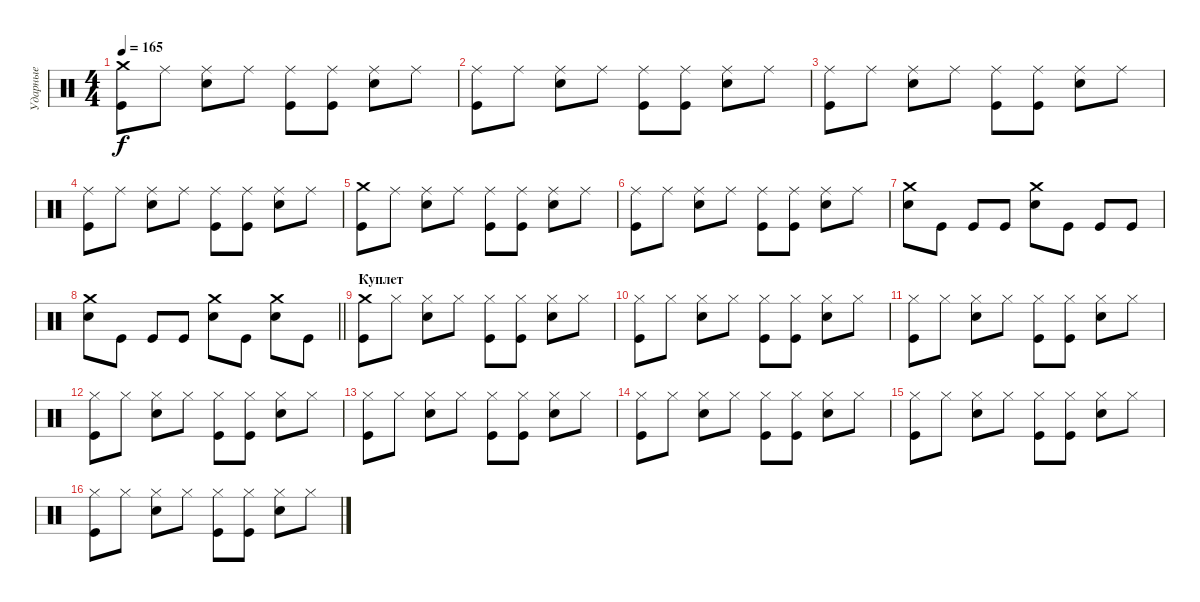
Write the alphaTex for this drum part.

\track ("Ударные" "Ударные") {instrument percussion}
\staff {score}
\articulation defaults
\ts (4 4)
\tempo 165
\clef neutral
\ks c
("Crash medium (hit)" "Kick (hit)").8{dy f} "Ride (middle)".8 ("Ride (middle)" "Electric Snare (hit)").8 "Ride (middle)".8 ("Ride (middle)" "Kick (hit)").8 ("Ride (middle)" "Kick (hit)").8 ("Ride (middle)" "Electric Snare (hit)").8 "Ride (middle)".8 |
("Ride (middle)" "Kick (hit)").8 "Ride (middle)".8 ("Ride (middle)" "Electric Snare (hit)").8 "Ride (middle)".8 ("Ride (middle)" "Kick (hit)").8 ("Ride (middle)" "Kick (hit)").8 ("Ride (middle)" "Electric Snare (hit)").8 "Ride (middle)".8 |
("Ride (middle)" "Kick (hit)").8 "Ride (middle)".8 ("Ride (middle)" "Electric Snare (hit)").8 "Ride (middle)".8 ("Ride (middle)" "Kick (hit)").8 ("Ride (middle)" "Kick (hit)").8 ("Ride (middle)" "Electric Snare (hit)").8 "Ride (middle)".8 |
("Ride (middle)" "Kick (hit)").8 "Ride (middle)".8 ("Ride (middle)" "Electric Snare (hit)").8 "Ride (middle)".8 ("Ride (middle)" "Kick (hit)").8 ("Ride (middle)" "Kick (hit)").8 ("Ride (middle)" "Electric Snare (hit)").8 "Ride (middle)".8 |
("Crash medium (hit)" "Kick (hit)").8 "Ride (middle)".8 ("Ride (middle)" "Electric Snare (hit)").8 "Ride (middle)".8 ("Ride (middle)" "Kick (hit)").8 ("Ride (middle)" "Kick (hit)").8 ("Ride (middle)" "Electric Snare (hit)").8 "Ride (middle)".8 |
("Ride (middle)" "Kick (hit)").8 "Ride (middle)".8 ("Ride (middle)" "Electric Snare (hit)").8 "Ride (middle)".8 ("Ride (middle)" "Kick (hit)").8 ("Ride (middle)" "Kick (hit)").8 ("Ride (middle)" "Electric Snare (hit)").8 "Ride (middle)".8 |
("Crash medium (hit)" "Electric Snare (hit)").8 "Kick (hit)".8 "Kick (hit)".8 "Kick (hit)".8 ("Crash medium (hit)" "Electric Snare (hit)").8 "Kick (hit)".8 "Kick (hit)".8 "Kick (hit)".8 |
\barLineRight lightlight
("Crash medium (hit)" "Electric Snare (hit)").8 "Kick (hit)".8 "Kick (hit)".8 "Kick (hit)".8 ("Crash medium (hit)" "Electric Snare (hit)").8 "Kick (hit)".8 ("Crash medium (hit)" "Electric Snare (hit)").8 "Kick (hit)".8 |
\section ("" "Куплет")
("Crash medium (hit)" "Kick (hit)").8 "Hi-Hat (closed)".8 ("Hi-Hat (closed)" "Electric Snare (hit)").8 "Hi-Hat (closed)".8 ("Hi-Hat (closed)" "Kick (hit)").8 ("Hi-Hat (closed)" "Kick (hit)").8 ("Hi-Hat (closed)" "Electric Snare (hit)").8 "Hi-Hat (closed)".8 |
("Hi-Hat (closed)" "Kick (hit)").8 "Hi-Hat (closed)".8 ("Hi-Hat (closed)" "Electric Snare (hit)").8 "Hi-Hat (closed)".8 ("Hi-Hat (closed)" "Kick (hit)").8 ("Hi-Hat (closed)" "Kick (hit)").8 ("Hi-Hat (closed)" "Electric Snare (hit)").8 "Hi-Hat (closed)".8 |
("Hi-Hat (closed)" "Kick (hit)").8 "Hi-Hat (closed)".8 ("Hi-Hat (closed)" "Electric Snare (hit)").8 "Hi-Hat (closed)".8 ("Hi-Hat (closed)" "Kick (hit)").8 ("Hi-Hat (closed)" "Kick (hit)").8 ("Hi-Hat (closed)" "Electric Snare (hit)").8 "Hi-Hat (closed)".8 |
("Hi-Hat (closed)" "Kick (hit)").8 "Hi-Hat (closed)".8 ("Hi-Hat (closed)" "Electric Snare (hit)").8 "Hi-Hat (closed)".8 ("Hi-Hat (closed)" "Kick (hit)").8 ("Hi-Hat (closed)" "Kick (hit)").8 ("Hi-Hat (closed)" "Electric Snare (hit)").8 "Hi-Hat (closed)".8 |
("Hi-Hat (closed)" "Kick (hit)").8 "Hi-Hat (closed)".8 ("Hi-Hat (closed)" "Electric Snare (hit)").8 "Hi-Hat (closed)".8 ("Hi-Hat (closed)" "Kick (hit)").8 ("Hi-Hat (closed)" "Kick (hit)").8 ("Hi-Hat (closed)" "Electric Snare (hit)").8 "Hi-Hat (closed)".8 |
("Hi-Hat (closed)" "Kick (hit)").8 "Hi-Hat (closed)".8 ("Hi-Hat (closed)" "Electric Snare (hit)").8 "Hi-Hat (closed)".8 ("Hi-Hat (closed)" "Kick (hit)").8 ("Hi-Hat (closed)" "Kick (hit)").8 ("Hi-Hat (closed)" "Electric Snare (hit)").8 "Hi-Hat (closed)".8 |
("Hi-Hat (closed)" "Kick (hit)").8 "Hi-Hat (closed)".8 ("Hi-Hat (closed)" "Electric Snare (hit)").8 "Hi-Hat (closed)".8 ("Hi-Hat (closed)" "Kick (hit)").8 ("Hi-Hat (closed)" "Kick (hit)").8 ("Hi-Hat (closed)" "Electric Snare (hit)").8 "Hi-Hat (closed)".8 |
("Hi-Hat (closed)" "Kick (hit)").8 "Hi-Hat (closed)".8 ("Hi-Hat (closed)" "Electric Snare (hit)").8 "Hi-Hat (closed)".8 ("Hi-Hat (closed)" "Kick (hit)").8 ("Hi-Hat (closed)" "Kick (hit)").8 ("Hi-Hat (closed)" "Electric Snare (hit)").8 "Hi-Hat (closed)".8
